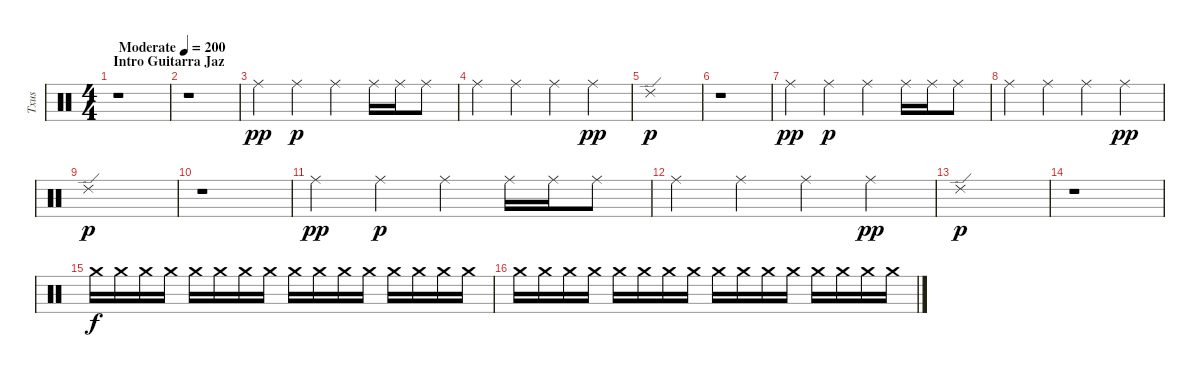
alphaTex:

\track ("Txus" "Txus") {instrument percussion}
\staff
\articulation defaults
\ts (4 4)
\section ("" "Intro Guitarra Jaz")
\tempo (200 "Moderate")
\clef neutral
\ks c
r.1{dy pp} |
r.1 |
"Ride (middle)".4{volume 4} "Ride (middle)".4{dy p} "Ride (middle)".4 "Ride (middle)".16 "Ride (middle)".16 "Ride (middle)".8 |
"Ride (middle)".4 "Ride (middle)".4 "Ride (middle)".4 "Ride (middle)".4{dy pp} |
"Ride (edge) 2".1{dy p} |
r.1 |
"Ride (middle)".4{dy pp} "Ride (middle)".4{dy p} "Ride (middle)".4 "Ride (middle)".16 "Ride (middle)".16 "Ride (middle)".8 |
"Ride (middle)".4 "Ride (middle)".4 "Ride (middle)".4 "Ride (middle)".4{dy pp} |
"Ride (edge) 2".1{dy p} |
r.1 |
"Ride (middle)".4{dy pp} "Ride (middle)".4{dy p} "Ride (middle)".4 "Ride (middle)".16 "Ride (middle)".16 "Ride (middle)".8 |
"Ride (middle)".4 "Ride (middle)".4 "Ride (middle)".4 "Ride (middle)".4{dy pp} |
"Ride (edge) 2".1{dy p} |
r.1{volume 0} |
"Crash medium (hit)".16{dy f volume 3} "Crash medium (hit)".16 "Crash medium (hit)".16 "Crash medium (hit)".16 "Crash medium (hit)".16 "Crash medium (hit)".16 "Crash medium (hit)".16 "Crash medium (hit)".16 "Crash medium (hit)".16 "Crash medium (hit)".16 "Crash medium (hit)".16 "Crash medium (hit)".16 "Crash medium (hit)".16 "Crash medium (hit)".16 "Crash medium (hit)".16 "Crash medium (hit)".16 |
"Crash medium (hit)".16 "Crash medium (hit)".16 "Crash medium (hit)".16 "Crash medium (hit)".16 "Crash medium (hit)".16 "Crash medium (hit)".16 "Crash medium (hit)".16 "Crash medium (hit)".16 "Crash medium (hit)".16 "Crash medium (hit)".16 "Crash medium (hit)".16 "Crash medium (hit)".16 "Crash medium (hit)".16 "Crash medium (hit)".16 "Crash medium (hit)".16 "Crash medium (hit)".16
